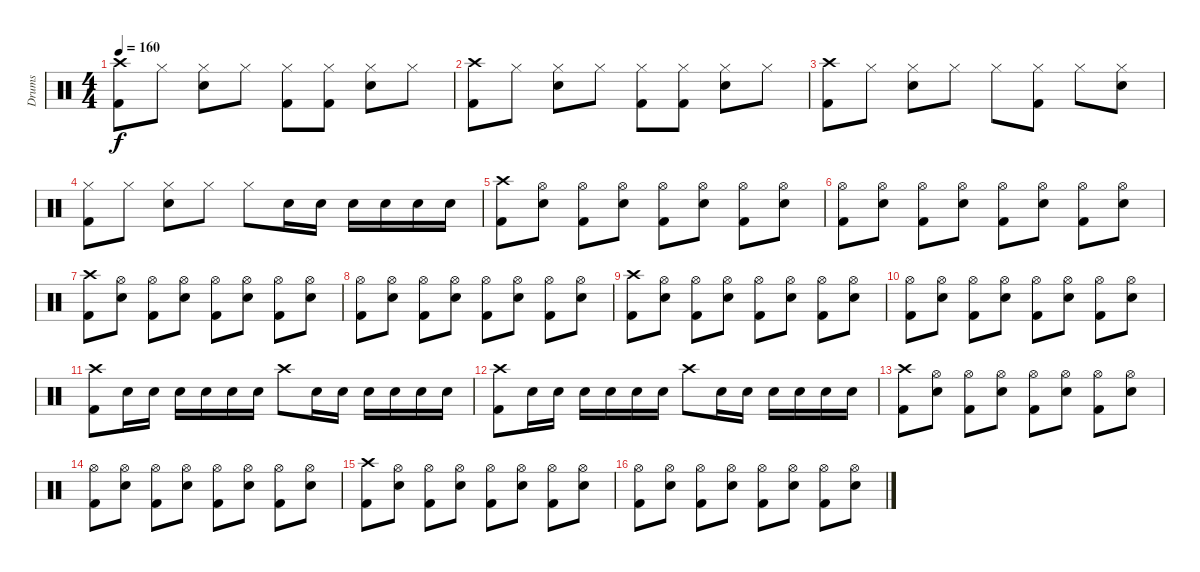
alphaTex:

\track ("Drums" "Drums") {solo instrument percussion}
\staff {score}
\articulation defaults
\ts (4 4)
\tempo 160
\clef neutral
\ks c
("Crash high (hit)" "Kick (hit) 2").8{dy f} "Hi-Hat (closed)".8 ("Hi-Hat (closed)" "Snare (hit) 2").8 "Hi-Hat (closed)".8 ("Hi-Hat (closed)" "Kick (hit) 2").8 ("Hi-Hat (closed)" "Kick (hit) 2").8 ("Hi-Hat (closed)" "Snare (hit) 2").8 "Hi-Hat (closed)".8 |
("Crash high (hit)" "Kick (hit) 2").8 "Hi-Hat (closed)".8 ("Hi-Hat (closed)" "Snare (hit) 2").8 "Hi-Hat (closed)".8 ("Hi-Hat (closed)" "Kick (hit) 2").8 ("Hi-Hat (closed)" "Kick (hit) 2").8 ("Hi-Hat (closed)" "Snare (hit) 2").8 "Hi-Hat (closed)".8 |
("Crash high (hit)" "Kick (hit) 2").8 "Hi-Hat (closed)".8 ("Hi-Hat (closed)" "Snare (hit) 2").8 "Hi-Hat (closed)".8 "Hi-Hat (closed)".8 ("Hi-Hat (closed)" "Kick (hit) 2").8 "Hi-Hat (closed)".8 ("Hi-Hat (closed)" "Snare (hit) 2").8 |
("Hi-Hat (closed)" "Kick (hit) 2").8 "Hi-Hat (closed)".8 ("Hi-Hat (closed)" "Snare (hit) 2").8 "Hi-Hat (closed)".8 "Hi-Hat (closed)".8 "Snare (hit) 2".16 "Snare (hit) 2".16 "Snare (hit) 2".16 "Snare (hit) 2".16 "Snare (hit) 2".16 "Snare (hit) 2".16 |
("Crash high (hit)" "Kick (hit) 2").8 ("Hi-Hat (open)" "Snare (hit) 2").8 ("Hi-Hat (open)" "Kick (hit) 2").8 ("Hi-Hat (open)" "Snare (hit) 2").8 ("Hi-Hat (open)" "Kick (hit) 2").8 ("Hi-Hat (open)" "Snare (hit) 2").8 ("Hi-Hat (open)" "Kick (hit) 2").8 ("Hi-Hat (open)" "Snare (hit) 2").8 |
("Hi-Hat (open)" "Kick (hit) 2").8 ("Hi-Hat (open)" "Snare (hit) 2").8 ("Hi-Hat (open)" "Kick (hit) 2").8 ("Hi-Hat (open)" "Snare (hit) 2").8 ("Hi-Hat (open)" "Kick (hit) 2").8 ("Hi-Hat (open)" "Snare (hit) 2").8 ("Hi-Hat (open)" "Kick (hit) 2").8 ("Hi-Hat (open)" "Snare (hit) 2").8 |
("Crash high (hit)" "Kick (hit) 2").8 ("Hi-Hat (open)" "Snare (hit) 2").8 ("Hi-Hat (open)" "Kick (hit) 2").8 ("Hi-Hat (open)" "Snare (hit) 2").8 ("Hi-Hat (open)" "Kick (hit) 2").8 ("Hi-Hat (open)" "Snare (hit) 2").8 ("Hi-Hat (open)" "Kick (hit) 2").8 ("Hi-Hat (open)" "Snare (hit) 2").8 |
("Hi-Hat (open)" "Kick (hit) 2").8 ("Hi-Hat (open)" "Snare (hit) 2").8 ("Hi-Hat (open)" "Kick (hit) 2").8 ("Hi-Hat (open)" "Snare (hit) 2").8 ("Hi-Hat (open)" "Kick (hit) 2").8 ("Hi-Hat (open)" "Snare (hit) 2").8 ("Hi-Hat (open)" "Kick (hit) 2").8 ("Hi-Hat (open)" "Snare (hit) 2").8 |
("Crash high (hit)" "Kick (hit) 2").8 ("Hi-Hat (open)" "Snare (hit) 2").8 ("Hi-Hat (open)" "Kick (hit) 2").8 ("Hi-Hat (open)" "Snare (hit) 2").8 ("Hi-Hat (open)" "Kick (hit) 2").8 ("Hi-Hat (open)" "Snare (hit) 2").8 ("Hi-Hat (open)" "Kick (hit) 2").8 ("Hi-Hat (open)" "Snare (hit) 2").8 |
("Hi-Hat (open)" "Kick (hit) 2").8 ("Hi-Hat (open)" "Snare (hit) 2").8 ("Hi-Hat (open)" "Kick (hit) 2").8 ("Hi-Hat (open)" "Snare (hit) 2").8 ("Hi-Hat (open)" "Kick (hit) 2").8 ("Hi-Hat (open)" "Snare (hit) 2").8 ("Hi-Hat (open)" "Kick (hit) 2").8 ("Hi-Hat (open)" "Snare (hit) 2").8 |
("Crash high (hit)" "Kick (hit) 2").8 "Snare (hit) 2".16 "Snare (hit) 2".16 "Snare (hit) 2".16 "Snare (hit) 2".16 "Snare (hit) 2".16 "Snare (hit) 2".16 "Crash high (hit)".8 "Snare (hit) 2".16 "Snare (hit) 2".16 "Snare (hit) 2".16 "Snare (hit) 2".16 "Snare (hit) 2".16 "Snare (hit) 2".16 |
("Crash high (hit)" "Kick (hit) 2").8 "Snare (hit) 2".16 "Snare (hit) 2".16 "Snare (hit) 2".16 "Snare (hit) 2".16 "Snare (hit) 2".16 "Snare (hit) 2".16 "Crash high (hit)".8 "Snare (hit) 2".16 "Snare (hit) 2".16 "Snare (hit) 2".16 "Snare (hit) 2".16 "Snare (hit) 2".16 "Snare (hit) 2".16 |
("Crash high (hit)" "Kick (hit) 2").8 ("Hi-Hat (open)" "Snare (hit) 2").8 ("Hi-Hat (open)" "Kick (hit) 2").8 ("Hi-Hat (open)" "Snare (hit) 2").8 ("Hi-Hat (open)" "Kick (hit) 2").8 ("Hi-Hat (open)" "Snare (hit) 2").8 ("Hi-Hat (open)" "Kick (hit) 2").8 ("Hi-Hat (open)" "Snare (hit) 2").8 |
("Hi-Hat (open)" "Kick (hit) 2").8 ("Hi-Hat (open)" "Snare (hit) 2").8 ("Hi-Hat (open)" "Kick (hit) 2").8 ("Hi-Hat (open)" "Snare (hit) 2").8 ("Hi-Hat (open)" "Kick (hit) 2").8 ("Hi-Hat (open)" "Snare (hit) 2").8 ("Hi-Hat (open)" "Kick (hit) 2").8 ("Hi-Hat (open)" "Snare (hit) 2").8 |
("Crash high (hit)" "Kick (hit) 2").8 ("Hi-Hat (open)" "Snare (hit) 2").8 ("Hi-Hat (open)" "Kick (hit) 2").8 ("Hi-Hat (open)" "Snare (hit) 2").8 ("Hi-Hat (open)" "Kick (hit) 2").8 ("Hi-Hat (open)" "Snare (hit) 2").8 ("Hi-Hat (open)" "Kick (hit) 2").8 ("Hi-Hat (open)" "Snare (hit) 2").8 |
("Hi-Hat (open)" "Kick (hit) 2").8 ("Hi-Hat (open)" "Snare (hit) 2").8 ("Hi-Hat (open)" "Kick (hit) 2").8 ("Hi-Hat (open)" "Snare (hit) 2").8 ("Hi-Hat (open)" "Kick (hit) 2").8 ("Hi-Hat (open)" "Snare (hit) 2").8 ("Hi-Hat (open)" "Kick (hit) 2").8 ("Hi-Hat (open)" "Snare (hit) 2").8
